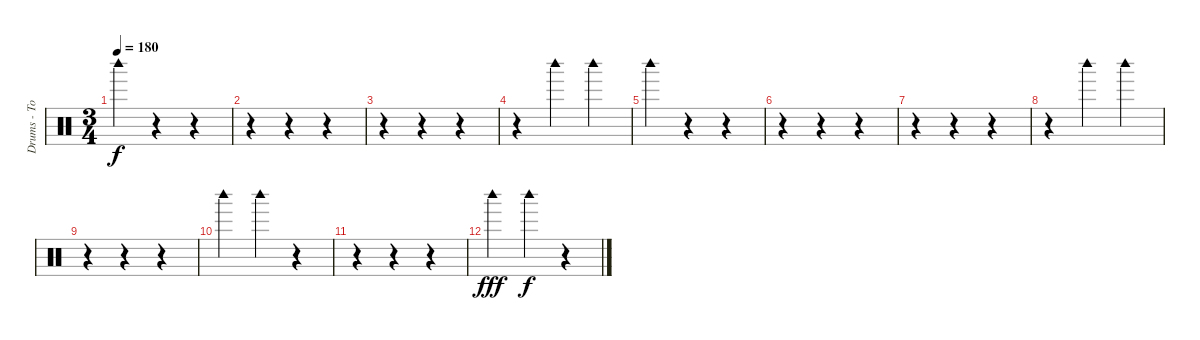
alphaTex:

\track ("Drums - Tomas" "Drums - To") {instrument percussion}
\staff {score}
\articulation defaults
\ts (3 4)
\tempo 180
\clef neutral
\ks c "Woodblock high (hit)".4{dy f}
r.4 r.4 |
r.4 r.4 r.4 |
r.4 r.4 r.4 |
r.4 "Woodblock high (hit)".4 "Woodblock high (hit)".4 |
"Woodblock high (hit)".4 r.4 r.4 |
r.4 r.4 r.4 |
r.4 r.4 r.4 |
r.4 "Woodblock high (hit)".4 "Woodblock high (hit)".4 |
r.4 r.4 r.4 |
"Woodblock high (hit)".4 "Woodblock high (hit)".4 r.4 |
r.4 r.4 r.4 |
"Woodblock high (hit)".4{dy fff} "Woodblock high (hit)".4{dy f} r.4
